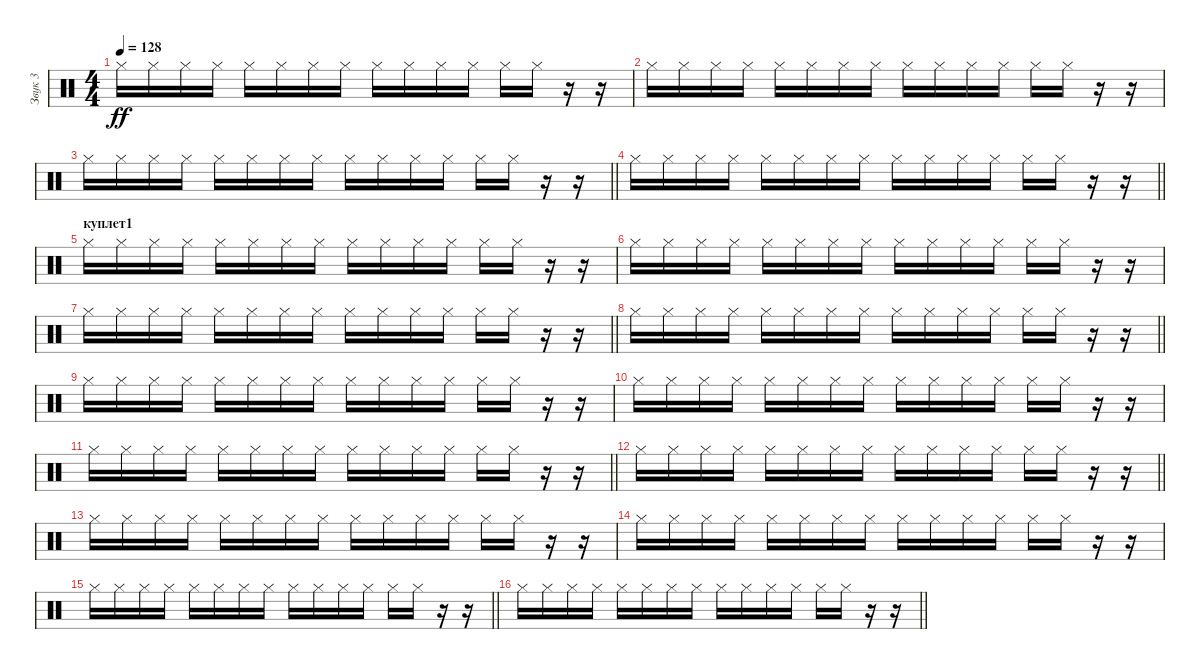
\track ("Звук 3" "Звук 3") {instrument percussion}
\staff {score}
\articulation defaults
\ts (4 4)
\tempo 128
\clef neutral
\ks c "Hi-Hat (closed)".16{dy ff} "Hi-Hat (closed)".16 "Hi-Hat (closed)".16 "Hi-Hat (closed)".16 "Hi-Hat (closed)".16 "Hi-Hat (closed)".16 "Hi-Hat (closed)".16 "Hi-Hat (closed)".16 "Hi-Hat (closed)".16 "Hi-Hat (closed)".16 "Hi-Hat (closed)".16 "Hi-Hat (closed)".16 "Hi-Hat (closed)".16 "Hi-Hat (closed)".16
r.16 r.16 |
"Hi-Hat (closed)".16 "Hi-Hat (closed)".16 "Hi-Hat (closed)".16 "Hi-Hat (closed)".16 "Hi-Hat (closed)".16 "Hi-Hat (closed)".16 "Hi-Hat (closed)".16 "Hi-Hat (closed)".16 "Hi-Hat (closed)".16 "Hi-Hat (closed)".16 "Hi-Hat (closed)".16 "Hi-Hat (closed)".16 "Hi-Hat (closed)".16 "Hi-Hat (closed)".16 r.16 r.16 |
\barLineRight lightlight "Hi-Hat (closed)".16 "Hi-Hat (closed)".16 "Hi-Hat (closed)".16 "Hi-Hat (closed)".16 "Hi-Hat (closed)".16 "Hi-Hat (closed)".16 "Hi-Hat (closed)".16 "Hi-Hat (closed)".16 "Hi-Hat (closed)".16 "Hi-Hat (closed)".16 "Hi-Hat (closed)".16 "Hi-Hat (closed)".16 "Hi-Hat (closed)".16 "Hi-Hat (closed)".16
r.16 r.16 |
\barLineRight lightlight "Hi-Hat (closed)".16 "Hi-Hat (closed)".16 "Hi-Hat (closed)".16 "Hi-Hat (closed)".16 "Hi-Hat (closed)".16 "Hi-Hat (closed)".16 "Hi-Hat (closed)".16 "Hi-Hat (closed)".16 "Hi-Hat (closed)".16 "Hi-Hat (closed)".16 "Hi-Hat (closed)".16 "Hi-Hat (closed)".16 "Hi-Hat (closed)".16 "Hi-Hat (closed)".16
r.16 r.16 |
\section ("" "куплет1")
"Hi-Hat (closed)".16 "Hi-Hat (closed)".16 "Hi-Hat (closed)".16 "Hi-Hat (closed)".16 "Hi-Hat (closed)".16 "Hi-Hat (closed)".16 "Hi-Hat (closed)".16 "Hi-Hat (closed)".16 "Hi-Hat (closed)".16 "Hi-Hat (closed)".16 "Hi-Hat (closed)".16 "Hi-Hat (closed)".16 "Hi-Hat (closed)".16 "Hi-Hat (closed)".16 r.16 r.16 |
"Hi-Hat (closed)".16 "Hi-Hat (closed)".16 "Hi-Hat (closed)".16 "Hi-Hat (closed)".16 "Hi-Hat (closed)".16 "Hi-Hat (closed)".16 "Hi-Hat (closed)".16 "Hi-Hat (closed)".16 "Hi-Hat (closed)".16 "Hi-Hat (closed)".16 "Hi-Hat (closed)".16 "Hi-Hat (closed)".16 "Hi-Hat (closed)".16 "Hi-Hat (closed)".16 r.16 r.16 |
\barLineRight lightlight "Hi-Hat (closed)".16 "Hi-Hat (closed)".16 "Hi-Hat (closed)".16 "Hi-Hat (closed)".16 "Hi-Hat (closed)".16 "Hi-Hat (closed)".16 "Hi-Hat (closed)".16 "Hi-Hat (closed)".16 "Hi-Hat (closed)".16 "Hi-Hat (closed)".16 "Hi-Hat (closed)".16 "Hi-Hat (closed)".16 "Hi-Hat (closed)".16 "Hi-Hat (closed)".16
r.16 r.16 |
\barLineRight lightlight "Hi-Hat (closed)".16 "Hi-Hat (closed)".16 "Hi-Hat (closed)".16 "Hi-Hat (closed)".16 "Hi-Hat (closed)".16 "Hi-Hat (closed)".16 "Hi-Hat (closed)".16 "Hi-Hat (closed)".16 "Hi-Hat (closed)".16 "Hi-Hat (closed)".16 "Hi-Hat (closed)".16 "Hi-Hat (closed)".16 "Hi-Hat (closed)".16 "Hi-Hat (closed)".16
r.16 r.16 |
"Hi-Hat (closed)".16 "Hi-Hat (closed)".16 "Hi-Hat (closed)".16 "Hi-Hat (closed)".16 "Hi-Hat (closed)".16 "Hi-Hat (closed)".16 "Hi-Hat (closed)".16 "Hi-Hat (closed)".16 "Hi-Hat (closed)".16 "Hi-Hat (closed)".16 "Hi-Hat (closed)".16 "Hi-Hat (closed)".16 "Hi-Hat (closed)".16 "Hi-Hat (closed)".16 r.16 r.16 |
"Hi-Hat (closed)".16 "Hi-Hat (closed)".16 "Hi-Hat (closed)".16 "Hi-Hat (closed)".16 "Hi-Hat (closed)".16 "Hi-Hat (closed)".16 "Hi-Hat (closed)".16 "Hi-Hat (closed)".16 "Hi-Hat (closed)".16 "Hi-Hat (closed)".16 "Hi-Hat (closed)".16 "Hi-Hat (closed)".16 "Hi-Hat (closed)".16 "Hi-Hat (closed)".16 r.16 r.16 |
\barLineRight lightlight "Hi-Hat (closed)".16 "Hi-Hat (closed)".16 "Hi-Hat (closed)".16 "Hi-Hat (closed)".16 "Hi-Hat (closed)".16 "Hi-Hat (closed)".16 "Hi-Hat (closed)".16 "Hi-Hat (closed)".16 "Hi-Hat (closed)".16 "Hi-Hat (closed)".16 "Hi-Hat (closed)".16 "Hi-Hat (closed)".16 "Hi-Hat (closed)".16 "Hi-Hat (closed)".16
r.16 r.16 |
\barLineRight lightlight "Hi-Hat (closed)".16 "Hi-Hat (closed)".16 "Hi-Hat (closed)".16 "Hi-Hat (closed)".16 "Hi-Hat (closed)".16 "Hi-Hat (closed)".16 "Hi-Hat (closed)".16 "Hi-Hat (closed)".16 "Hi-Hat (closed)".16 "Hi-Hat (closed)".16 "Hi-Hat (closed)".16 "Hi-Hat (closed)".16 "Hi-Hat (closed)".16 "Hi-Hat (closed)".16
r.16 r.16 |
"Hi-Hat (closed)".16 "Hi-Hat (closed)".16 "Hi-Hat (closed)".16 "Hi-Hat (closed)".16 "Hi-Hat (closed)".16 "Hi-Hat (closed)".16 "Hi-Hat (closed)".16 "Hi-Hat (closed)".16 "Hi-Hat (closed)".16 "Hi-Hat (closed)".16 "Hi-Hat (closed)".16 "Hi-Hat (closed)".16 "Hi-Hat (closed)".16 "Hi-Hat (closed)".16 r.16 r.16 |
"Hi-Hat (closed)".16 "Hi-Hat (closed)".16 "Hi-Hat (closed)".16 "Hi-Hat (closed)".16 "Hi-Hat (closed)".16 "Hi-Hat (closed)".16 "Hi-Hat (closed)".16 "Hi-Hat (closed)".16 "Hi-Hat (closed)".16 "Hi-Hat (closed)".16 "Hi-Hat (closed)".16 "Hi-Hat (closed)".16 "Hi-Hat (closed)".16 "Hi-Hat (closed)".16 r.16 r.16 |
\barLineRight lightlight "Hi-Hat (closed)".16 "Hi-Hat (closed)".16 "Hi-Hat (closed)".16 "Hi-Hat (closed)".16 "Hi-Hat (closed)".16 "Hi-Hat (closed)".16 "Hi-Hat (closed)".16 "Hi-Hat (closed)".16 "Hi-Hat (closed)".16 "Hi-Hat (closed)".16 "Hi-Hat (closed)".16 "Hi-Hat (closed)".16 "Hi-Hat (closed)".16 "Hi-Hat (closed)".16
r.16 r.16 |
\barLineRight lightlight "Hi-Hat (closed)".16 "Hi-Hat (closed)".16 "Hi-Hat (closed)".16 "Hi-Hat (closed)".16 "Hi-Hat (closed)".16 "Hi-Hat (closed)".16 "Hi-Hat (closed)".16 "Hi-Hat (closed)".16 "Hi-Hat (closed)".16 "Hi-Hat (closed)".16 "Hi-Hat (closed)".16 "Hi-Hat (closed)".16 "Hi-Hat (closed)".16 "Hi-Hat (closed)".16
r.16 r.16
